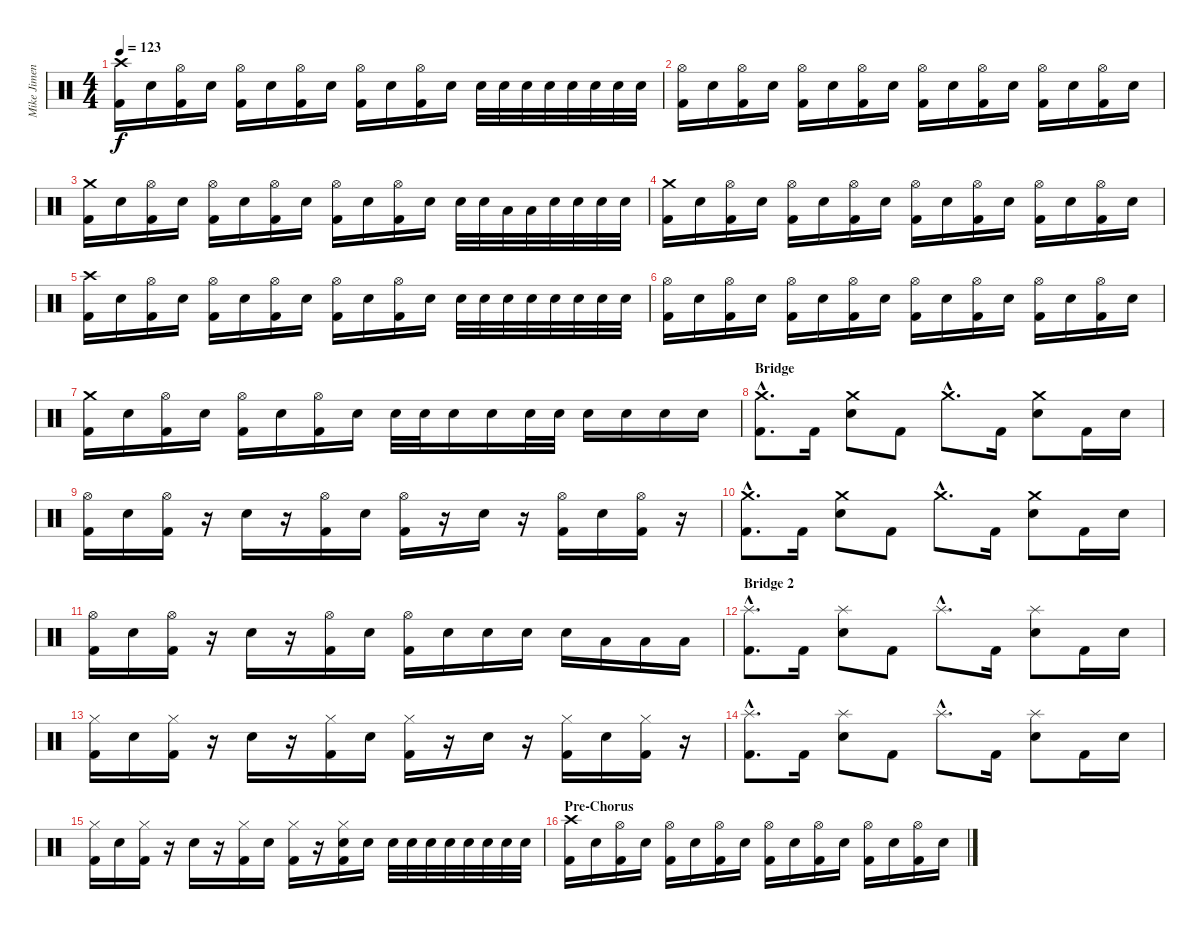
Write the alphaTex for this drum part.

\track ("Mike Jimenez Drums" "Mike Jimen") {instrument percussion}
\staff {score}
\articulation defaults
\ts (4 4)
\tempo 123
\clef neutral
\ks c
("Crash high (hit)" "Kick (hit) 2").16{dy f} "Electric Snare (hit)".16 ("Hi-Hat (open)" "Kick (hit) 2").16 "Electric Snare (hit)".16 ("Hi-Hat (open)" "Kick (hit) 2").16 "Electric Snare (hit)".16 ("Hi-Hat (open)" "Kick (hit) 2").16 "Electric Snare (hit)".16 ("Hi-Hat (open)" "Kick (hit) 2").16 "Electric Snare (hit)".16 ("Hi-Hat (open)" "Kick (hit) 2").16 "Electric Snare (hit)".16 "Electric Snare (hit)".32 "Electric Snare (hit)".32 "Electric Snare (hit)".32 "Electric Snare (hit)".32 "Electric Snare (hit)".32 "Electric Snare (hit)".32 "Electric Snare (hit)".32 "Electric Snare (hit)".32 |
("Hi-Hat (open)" "Kick (hit) 2").16 "Electric Snare (hit)".16 ("Hi-Hat (open)" "Kick (hit) 2").16 "Electric Snare (hit)".16 ("Hi-Hat (open)" "Kick (hit) 2").16 "Electric Snare (hit)".16 ("Hi-Hat (open)" "Kick (hit) 2").16 "Electric Snare (hit)".16 ("Hi-Hat (open)" "Kick (hit) 2").16 "Electric Snare (hit)".16 ("Hi-Hat (open)" "Kick (hit) 2").16 "Electric Snare (hit)".16 ("Hi-Hat (open)" "Kick (hit) 2").16 "Electric Snare (hit)".16 ("Hi-Hat (open)" "Kick (hit) 2").16 "Electric Snare (hit)".16 |
("Crash medium (hit)" "Kick (hit) 2").16 "Electric Snare (hit)".16 ("Hi-Hat (open)" "Kick (hit) 2").16 "Electric Snare (hit)".16 ("Hi-Hat (open)" "Kick (hit) 2").16 "Electric Snare (hit)".16 ("Hi-Hat (open)" "Kick (hit) 2").16 "Electric Snare (hit)".16 ("Hi-Hat (open)" "Kick (hit) 2").16 "Electric Snare (hit)".16 ("Hi-Hat (open)" "Kick (hit) 2").16 "Electric Snare (hit)".16 "Electric Snare (hit)".32 "Electric Snare (hit)".32 "Low Tom (hit)".32 "Low Tom (hit)".32 "Electric Snare (hit)".32 "Electric Snare (hit)".32 "Electric Snare (hit)".32 "Electric Snare (hit)".32 |
("Crash medium (hit)" "Kick (hit) 2").16 "Electric Snare (hit)".16 ("Hi-Hat (open)" "Kick (hit) 2").16 "Electric Snare (hit)".16 ("Hi-Hat (open)" "Kick (hit) 2").16 "Electric Snare (hit)".16 ("Hi-Hat (open)" "Kick (hit) 2").16 "Electric Snare (hit)".16 ("Hi-Hat (open)" "Kick (hit) 2").16 "Electric Snare (hit)".16 ("Hi-Hat (open)" "Kick (hit) 2").16 "Electric Snare (hit)".16 ("Hi-Hat (open)" "Kick (hit) 2").16 "Electric Snare (hit)".16 ("Hi-Hat (open)" "Kick (hit) 2").16 "Electric Snare (hit)".16 |
("Crash high (hit)" "Kick (hit) 2").16 "Electric Snare (hit)".16 ("Hi-Hat (open)" "Kick (hit) 2").16 "Electric Snare (hit)".16 ("Hi-Hat (open)" "Kick (hit) 2").16 "Electric Snare (hit)".16 ("Hi-Hat (open)" "Kick (hit) 2").16 "Electric Snare (hit)".16 ("Hi-Hat (open)" "Kick (hit) 2").16 "Electric Snare (hit)".16 ("Hi-Hat (open)" "Kick (hit) 2").16 "Electric Snare (hit)".16 "Electric Snare (hit)".32 "Electric Snare (hit)".32 "Electric Snare (hit)".32 "Electric Snare (hit)".32 "Electric Snare (hit)".32 "Electric Snare (hit)".32 "Electric Snare (hit)".32 "Electric Snare (hit)".32 |
("Hi-Hat (open)" "Kick (hit) 2").16 "Electric Snare (hit)".16 ("Hi-Hat (open)" "Kick (hit) 2").16 "Electric Snare (hit)".16 ("Hi-Hat (open)" "Kick (hit) 2").16 "Electric Snare (hit)".16 ("Hi-Hat (open)" "Kick (hit) 2").16 "Electric Snare (hit)".16 ("Hi-Hat (open)" "Kick (hit) 2").16 "Electric Snare (hit)".16 ("Hi-Hat (open)" "Kick (hit) 2").16 "Electric Snare (hit)".16 ("Hi-Hat (open)" "Kick (hit) 2").16 "Electric Snare (hit)".16 ("Hi-Hat (open)" "Kick (hit) 2").16 "Electric Snare (hit)".16 |
("Crash medium (hit)" "Kick (hit) 2").16 "Electric Snare (hit)".16 ("Hi-Hat (open)" "Kick (hit) 2").16 "Electric Snare (hit)".16 ("Hi-Hat (open)" "Kick (hit) 2").16 "Electric Snare (hit)".16 ("Hi-Hat (open)" "Kick (hit) 2").16 "Electric Snare (hit)".16 "Electric Snare (hit)".32 "Electric Snare (hit)".32 "Electric Snare (hit)".16 "Electric Snare (hit)".16 "Electric Snare (hit)".32 "Electric Snare (hit)".32 "Electric Snare (hit)".16 "Electric Snare (hit)".16 "Electric Snare (hit)".16 "Electric Snare (hit)".16 |
\section ("" "Bridge")
("Crash medium (hit)"{hac} "Kick (hit) 2"{hac}).8{d} "Kick (hit) 2".16 ("Crash medium (hit)" "Electric Snare (hit)").8 "Kick (hit) 2".8 "Crash medium (hit)"{hac}.8{d} "Kick (hit) 2".16 ("Crash medium (hit)" "Electric Snare (hit)").8 "Kick (hit) 2".16 "Electric Snare (hit)".16 |
("Hi-Hat (open)" "Kick (hit) 2").16 "Electric Snare (hit)".16 ("Hi-Hat (open)" "Kick (hit) 2").16 r.16 "Electric Snare (hit)".16 r.16 ("Hi-Hat (open)" "Kick (hit) 2").16 "Electric Snare (hit)".16 ("Hi-Hat (open)" "Kick (hit) 2").16 r.16 "Electric Snare (hit)".16 r.16 ("Hi-Hat (open)" "Kick (hit) 2").16 "Electric Snare (hit)".16 ("Hi-Hat (open)" "Kick (hit) 2").16 r.16 |
("Crash medium (hit)"{hac} "Kick (hit) 2"{hac}).8{d} "Kick (hit) 2".16 ("Crash medium (hit)" "Electric Snare (hit)").8 "Kick (hit) 2".8 "Crash medium (hit)"{hac}.8{d} "Kick (hit) 2".16 ("Crash medium (hit)" "Electric Snare (hit)").8 "Kick (hit) 2".16 "Electric Snare (hit)".16 |
("Hi-Hat (open)" "Kick (hit) 2").16 "Electric Snare (hit)".16 ("Hi-Hat (open)" "Kick (hit) 2").16 r.16 "Electric Snare (hit)".16 r.16 ("Hi-Hat (open)" "Kick (hit) 2").16 "Electric Snare (hit)".16 ("Hi-Hat (open)" "Kick (hit) 2").16 "Electric Snare (hit)".16 "Electric Snare (hit)".16 "Electric Snare (hit)".16 "Electric Snare (hit)".16 "Low Tom (hit)".16 "Low Tom (hit)".16 "Low Tom (hit)".16 |
\section ("" "Bridge 2")
("Splash (hit)"{hac} "Kick (hit) 2"{hac}).8{d} "Kick (hit) 2".16 ("Splash (hit)" "Electric Snare (hit)").8 "Kick (hit) 2".8 "Splash (hit)"{hac}.8{d} "Kick (hit) 2".16 ("Splash (hit)" "Electric Snare (hit)").8 "Kick (hit) 2".16 "Electric Snare (hit)".16 |
("Hi-Hat (closed)" "Kick (hit) 2").16 "Electric Snare (hit)".16 ("Hi-Hat (closed)" "Kick (hit) 2").16 r.16 "Electric Snare (hit)".16 r.16 ("Hi-Hat (closed)" "Kick (hit) 2").16 "Electric Snare (hit)".16 ("Hi-Hat (closed)" "Kick (hit) 2").16 r.16 "Electric Snare (hit)".16 r.16 ("Hi-Hat (closed)" "Kick (hit) 2").16 "Electric Snare (hit)".16 ("Hi-Hat (closed)" "Kick (hit) 2").16 r.16 |
("Splash (hit)"{hac} "Kick (hit) 2"{hac}).8{d} "Kick (hit) 2".16 ("Splash (hit)" "Electric Snare (hit)").8 "Kick (hit) 2".8 "Splash (hit)"{hac}.8{d} "Kick (hit) 2".16 ("Splash (hit)" "Electric Snare (hit)").8 "Kick (hit) 2".16 "Electric Snare (hit)".16 |
("Hi-Hat (closed)" "Kick (hit) 2").16 "Electric Snare (hit)".16 ("Hi-Hat (closed)" "Kick (hit) 2").16 r.16 "Electric Snare (hit)".16 r.16 ("Hi-Hat (closed)" "Kick (hit) 2").16 "Electric Snare (hit)".16 ("Hi-Hat (closed)" "Kick (hit) 2").16 r.16 ("Hi-Hat (closed)" "Electric Snare (hit)" "Kick (hit) 2").16 "Electric Snare (hit)".16 "Electric Snare (hit)".32 "Electric Snare (hit)".32 "Electric Snare (hit)".32 "Electric Snare (hit)".32 "Electric Snare (hit)".32 "Electric Snare (hit)".32 "Electric Snare (hit)".32 "Electric Snare (hit)".32 |
\section ("" "Pre-Chorus")
("Crash high (hit)" "Kick (hit) 2").16 "Electric Snare (hit)".16 ("Hi-Hat (open)" "Kick (hit) 2").16 "Electric Snare (hit)".16 ("Hi-Hat (open)" "Kick (hit) 2").16 "Electric Snare (hit)".16 ("Hi-Hat (open)" "Kick (hit) 2").16 "Electric Snare (hit)".16 ("Hi-Hat (open)" "Kick (hit) 2").16 "Electric Snare (hit)".16 ("Hi-Hat (open)" "Kick (hit) 2").16 "Electric Snare (hit)".16 ("Hi-Hat (open)" "Kick (hit) 2").16 "Electric Snare (hit)".16 ("Hi-Hat (open)" "Kick (hit) 2").16 "Electric Snare (hit)".16
